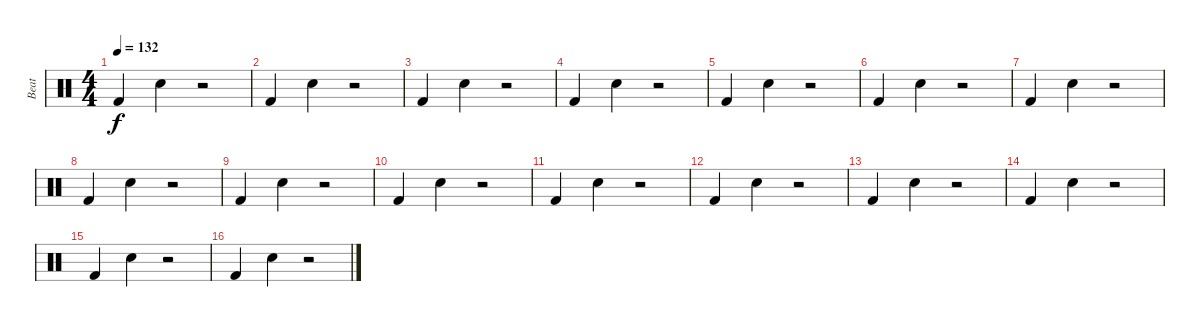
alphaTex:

\track ("Beat" "Beat") {instrument percussion}
\staff {score}
\articulation defaults
\ts (4 4)
\tempo 132
\clef neutral
\ks c "Kick (hit) 2".4{dy f} "Electric Snare (hit)".4
r.2 |
"Kick (hit) 2".4 "Electric Snare (hit)".4 r.2 |
"Kick (hit) 2".4 "Electric Snare (hit)".4 r.2 |
"Kick (hit) 2".4 "Electric Snare (hit)".4 r.2 |
"Kick (hit) 2".4 "Electric Snare (hit)".4 r.2 |
"Kick (hit) 2".4 "Electric Snare (hit)".4 r.2 |
"Kick (hit) 2".4 "Electric Snare (hit)".4 r.2 |
"Kick (hit) 2".4 "Electric Snare (hit)".4 r.2 |
"Kick (hit) 2".4 "Electric Snare (hit)".4 r.2 |
"Kick (hit) 2".4 "Electric Snare (hit)".4 r.2 |
"Kick (hit) 2".4 "Electric Snare (hit)".4 r.2 |
"Kick (hit) 2".4 "Electric Snare (hit)".4 r.2 |
"Kick (hit) 2".4 "Electric Snare (hit)".4 r.2 |
"Kick (hit) 2".4 "Electric Snare (hit)".4 r.2 |
"Kick (hit) 2".4 "Electric Snare (hit)".4 r.2 |
"Kick (hit) 2".4 "Electric Snare (hit)".4 r.2
